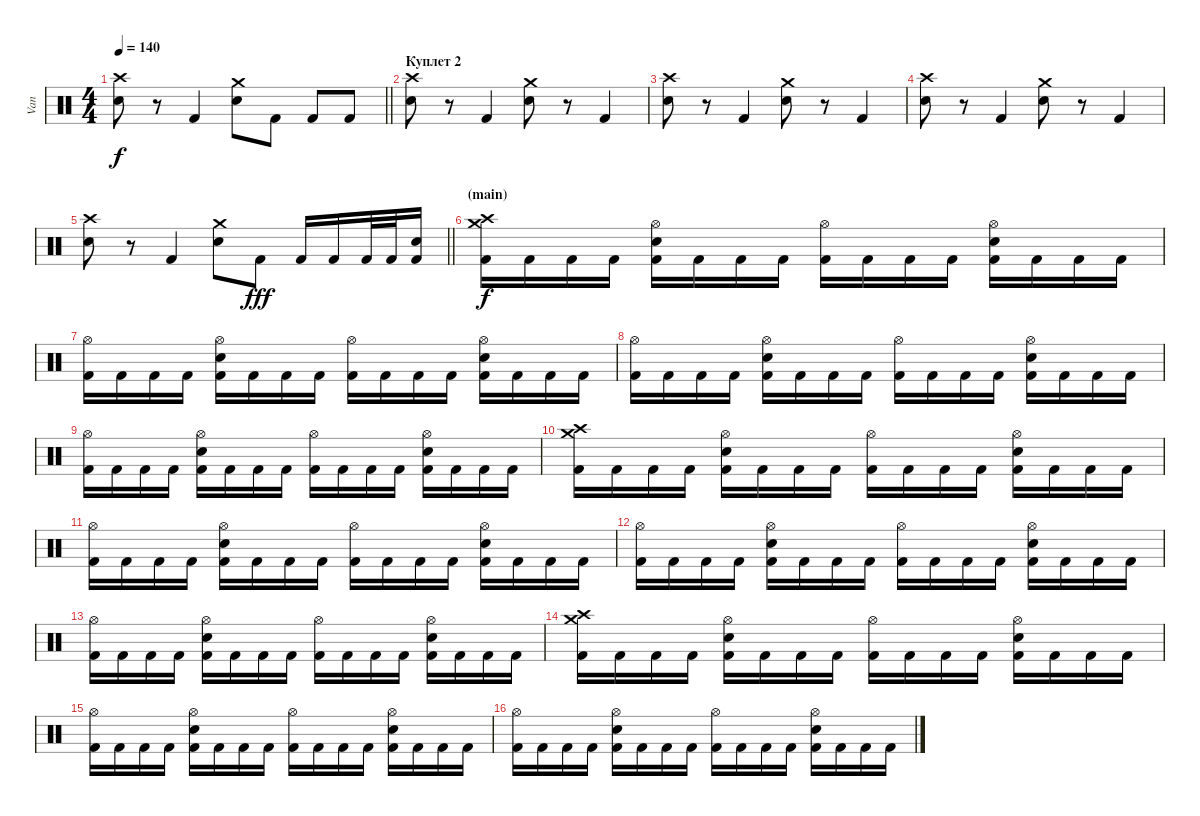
\track ("Van" "Van") {instrument percussion}
\staff {score}
\articulation defaults
\ts (4 4)
\tempo 140
\clef neutral
\barLineRight lightlight
\ks c
("Crash high (hit)" "Electric Snare (hit)").8{dy f} r.8 "Kick (hit) 2".4 ("Crash medium (hit)" "Electric Snare (hit)").8 "Kick (hit) 2".8 "Kick (hit) 2".8 "Kick (hit) 2".8 |
\section ("" "Куплет 2")
("Crash high (hit)" "Electric Snare (hit)").8 r.8 "Kick (hit) 2".4 ("Crash medium (hit)" "Electric Snare (hit)").8 r.8 "Kick (hit) 2".4 |
("Crash high (hit)" "Electric Snare (hit)").8 r.8 "Kick (hit) 2".4 ("Crash medium (hit)" "Electric Snare (hit)").8 r.8 "Kick (hit) 2".4 |
("Crash high (hit)" "Electric Snare (hit)").8 r.8 "Kick (hit) 2".4 ("Crash medium (hit)" "Electric Snare (hit)").8 r.8 "Kick (hit) 2".4 |
\barLineRight lightlight
("Crash high (hit)" "Electric Snare (hit)").8 r.8 "Kick (hit) 2".4 ("Crash medium (hit)" "Electric Snare (hit)").8 "Kick (hit) 2".8{dy fff} "Kick (hit) 2".16 "Kick (hit) 2".16 "Kick (hit) 2".32 "Kick (hit) 2".32 ("Electric Snare (hit)" "Kick (hit) 2").16 |
\section ("" "(main)")
("Crash high (hit)" "Crash medium (hit)" "Kick (hit) 2").16{dy f} "Kick (hit) 2".16 "Kick (hit) 2".16 "Kick (hit) 2".16 ("Hi-Hat (open)" "Electric Snare (hit)" "Kick (hit) 2").16 "Kick (hit) 2".16 "Kick (hit) 2".16 "Kick (hit) 2".16 ("Hi-Hat (open)" "Kick (hit) 2").16 "Kick (hit) 2".16 "Kick (hit) 2".16 "Kick (hit) 2".16 ("Hi-Hat (open)" "Electric Snare (hit)" "Kick (hit) 2").16 "Kick (hit) 2".16 "Kick (hit) 2".16 "Kick (hit) 2".16 |
("Hi-Hat (open)" "Kick (hit) 2").16 "Kick (hit) 2".16 "Kick (hit) 2".16 "Kick (hit) 2".16 ("Hi-Hat (open)" "Electric Snare (hit)" "Kick (hit) 2").16 "Kick (hit) 2".16 "Kick (hit) 2".16 "Kick (hit) 2".16 ("Hi-Hat (open)" "Kick (hit) 2").16 "Kick (hit) 2".16 "Kick (hit) 2".16 "Kick (hit) 2".16 ("Hi-Hat (open)" "Electric Snare (hit)" "Kick (hit) 2").16 "Kick (hit) 2".16 "Kick (hit) 2".16 "Kick (hit) 2".16 |
("Hi-Hat (open)" "Kick (hit) 2").16 "Kick (hit) 2".16 "Kick (hit) 2".16 "Kick (hit) 2".16 ("Hi-Hat (open)" "Electric Snare (hit)" "Kick (hit) 2").16 "Kick (hit) 2".16 "Kick (hit) 2".16 "Kick (hit) 2".16 ("Hi-Hat (open)" "Kick (hit) 2").16 "Kick (hit) 2".16 "Kick (hit) 2".16 "Kick (hit) 2".16 ("Hi-Hat (open)" "Electric Snare (hit)" "Kick (hit) 2").16 "Kick (hit) 2".16 "Kick (hit) 2".16 "Kick (hit) 2".16 |
("Hi-Hat (open)" "Kick (hit) 2").16 "Kick (hit) 2".16 "Kick (hit) 2".16 "Kick (hit) 2".16 ("Hi-Hat (open)" "Electric Snare (hit)" "Kick (hit) 2").16 "Kick (hit) 2".16 "Kick (hit) 2".16 "Kick (hit) 2".16 ("Hi-Hat (open)" "Kick (hit) 2").16 "Kick (hit) 2".16 "Kick (hit) 2".16 "Kick (hit) 2".16 ("Hi-Hat (open)" "Electric Snare (hit)" "Kick (hit) 2").16 "Kick (hit) 2".16 "Kick (hit) 2".16 "Kick (hit) 2".16 |
("Crash high (hit)" "Crash medium (hit)" "Kick (hit) 2").16 "Kick (hit) 2".16 "Kick (hit) 2".16 "Kick (hit) 2".16 ("Hi-Hat (open)" "Electric Snare (hit)" "Kick (hit) 2").16 "Kick (hit) 2".16 "Kick (hit) 2".16 "Kick (hit) 2".16 ("Hi-Hat (open)" "Kick (hit) 2").16 "Kick (hit) 2".16 "Kick (hit) 2".16 "Kick (hit) 2".16 ("Hi-Hat (open)" "Electric Snare (hit)" "Kick (hit) 2").16 "Kick (hit) 2".16 "Kick (hit) 2".16 "Kick (hit) 2".16 |
("Hi-Hat (open)" "Kick (hit) 2").16 "Kick (hit) 2".16 "Kick (hit) 2".16 "Kick (hit) 2".16 ("Hi-Hat (open)" "Electric Snare (hit)" "Kick (hit) 2").16 "Kick (hit) 2".16 "Kick (hit) 2".16 "Kick (hit) 2".16 ("Hi-Hat (open)" "Kick (hit) 2").16 "Kick (hit) 2".16 "Kick (hit) 2".16 "Kick (hit) 2".16 ("Hi-Hat (open)" "Electric Snare (hit)" "Kick (hit) 2").16 "Kick (hit) 2".16 "Kick (hit) 2".16 "Kick (hit) 2".16 |
("Hi-Hat (open)" "Kick (hit) 2").16 "Kick (hit) 2".16 "Kick (hit) 2".16 "Kick (hit) 2".16 ("Hi-Hat (open)" "Electric Snare (hit)" "Kick (hit) 2").16 "Kick (hit) 2".16 "Kick (hit) 2".16 "Kick (hit) 2".16 ("Hi-Hat (open)" "Kick (hit) 2").16 "Kick (hit) 2".16 "Kick (hit) 2".16 "Kick (hit) 2".16 ("Hi-Hat (open)" "Electric Snare (hit)" "Kick (hit) 2").16 "Kick (hit) 2".16 "Kick (hit) 2".16 "Kick (hit) 2".16 |
("Hi-Hat (open)" "Kick (hit) 2").16 "Kick (hit) 2".16 "Kick (hit) 2".16 "Kick (hit) 2".16 ("Hi-Hat (open)" "Electric Snare (hit)" "Kick (hit) 2").16 "Kick (hit) 2".16 "Kick (hit) 2".16 "Kick (hit) 2".16 ("Hi-Hat (open)" "Kick (hit) 2").16 "Kick (hit) 2".16 "Kick (hit) 2".16 "Kick (hit) 2".16 ("Hi-Hat (open)" "Electric Snare (hit)" "Kick (hit) 2").16 "Kick (hit) 2".16 "Kick (hit) 2".16 "Kick (hit) 2".16 |
("Crash high (hit)" "Crash medium (hit)" "Kick (hit) 2").16 "Kick (hit) 2".16 "Kick (hit) 2".16 "Kick (hit) 2".16 ("Hi-Hat (open)" "Electric Snare (hit)" "Kick (hit) 2").16 "Kick (hit) 2".16 "Kick (hit) 2".16 "Kick (hit) 2".16 ("Hi-Hat (open)" "Kick (hit) 2").16 "Kick (hit) 2".16 "Kick (hit) 2".16 "Kick (hit) 2".16 ("Hi-Hat (open)" "Electric Snare (hit)" "Kick (hit) 2").16 "Kick (hit) 2".16 "Kick (hit) 2".16 "Kick (hit) 2".16 |
("Hi-Hat (open)" "Kick (hit) 2").16 "Kick (hit) 2".16 "Kick (hit) 2".16 "Kick (hit) 2".16 ("Hi-Hat (open)" "Electric Snare (hit)" "Kick (hit) 2").16 "Kick (hit) 2".16 "Kick (hit) 2".16 "Kick (hit) 2".16 ("Hi-Hat (open)" "Kick (hit) 2").16 "Kick (hit) 2".16 "Kick (hit) 2".16 "Kick (hit) 2".16 ("Hi-Hat (open)" "Electric Snare (hit)" "Kick (hit) 2").16 "Kick (hit) 2".16 "Kick (hit) 2".16 "Kick (hit) 2".16 |
("Hi-Hat (open)" "Kick (hit) 2").16 "Kick (hit) 2".16 "Kick (hit) 2".16 "Kick (hit) 2".16 ("Hi-Hat (open)" "Electric Snare (hit)" "Kick (hit) 2").16 "Kick (hit) 2".16 "Kick (hit) 2".16 "Kick (hit) 2".16 ("Hi-Hat (open)" "Kick (hit) 2").16 "Kick (hit) 2".16 "Kick (hit) 2".16 "Kick (hit) 2".16 ("Hi-Hat (open)" "Electric Snare (hit)" "Kick (hit) 2").16 "Kick (hit) 2".16 "Kick (hit) 2".16 "Kick (hit) 2".16
